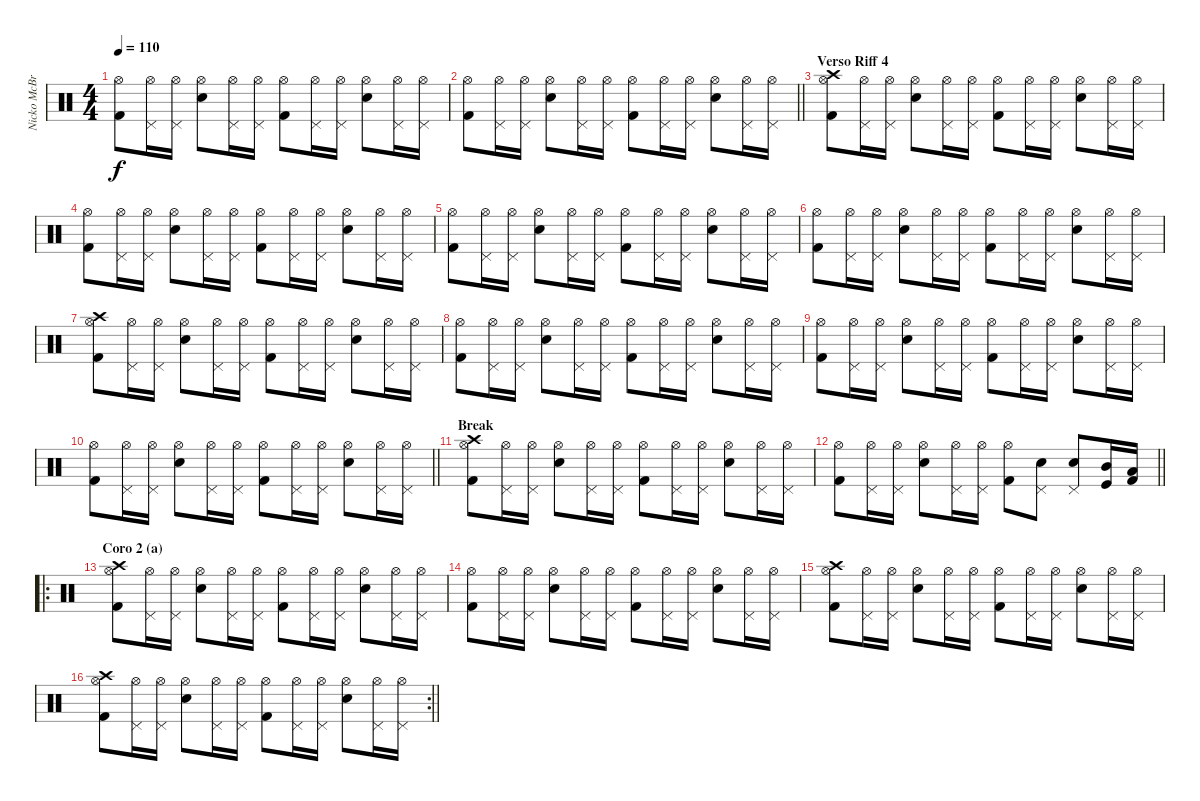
\track ("Nicko McBrain" "Nicko McBr") {instrument percussion}
\staff {score}
\articulation defaults
\ts (4 4)
\tempo 110
\clef neutral
\ks c
("Kick (hit) 2" "Hi-Hat (open)").8{dy f} ("Pedal Hi-Hat (hit)" "Hi-Hat (open)").16 ("Pedal Hi-Hat (hit)" "Hi-Hat (open)").16 ("Snare (hit) 2" "Hi-Hat (open)").8 ("Pedal Hi-Hat (hit)" "Hi-Hat (open)").16 ("Pedal Hi-Hat (hit)" "Hi-Hat (open)").16 ("Kick (hit) 2" "Hi-Hat (open)").8 ("Pedal Hi-Hat (hit)" "Hi-Hat (open)").16 ("Pedal Hi-Hat (hit)" "Hi-Hat (open)").16 ("Snare (hit) 2" "Hi-Hat (open)").8 ("Pedal Hi-Hat (hit)" "Hi-Hat (open)").16 ("Pedal Hi-Hat (hit)" "Hi-Hat (open)").16 |
\barLineRight lightlight
("Kick (hit) 2" "Hi-Hat (open)").8 ("Pedal Hi-Hat (hit)" "Hi-Hat (open)").16 ("Pedal Hi-Hat (hit)" "Hi-Hat (open)").16 ("Snare (hit) 2" "Hi-Hat (open)").8 ("Pedal Hi-Hat (hit)" "Hi-Hat (open)").16 ("Pedal Hi-Hat (hit)" "Hi-Hat (open)").16 ("Kick (hit) 2" "Hi-Hat (open)").8 ("Pedal Hi-Hat (hit)" "Hi-Hat (open)").16 ("Pedal Hi-Hat (hit)" "Hi-Hat (open)").16 ("Snare (hit) 2" "Hi-Hat (open)").8 ("Pedal Hi-Hat (hit)" "Hi-Hat (open)").16 ("Pedal Hi-Hat (hit)" "Hi-Hat (open)").16 |
\section ("" "Verso Riff 4")
("Kick (hit) 2" "Hi-Hat (open)" "Crash high (hit)").8 ("Pedal Hi-Hat (hit)" "Hi-Hat (open)").16 ("Pedal Hi-Hat (hit)" "Hi-Hat (open)").16 ("Snare (hit) 2" "Hi-Hat (open)").8 ("Pedal Hi-Hat (hit)" "Hi-Hat (open)").16 ("Pedal Hi-Hat (hit)" "Hi-Hat (open)").16 ("Kick (hit) 2" "Hi-Hat (open)").8 ("Pedal Hi-Hat (hit)" "Hi-Hat (open)").16 ("Pedal Hi-Hat (hit)" "Hi-Hat (open)").16 ("Snare (hit) 2" "Hi-Hat (open)").8 ("Pedal Hi-Hat (hit)" "Hi-Hat (open)").16 ("Pedal Hi-Hat (hit)" "Hi-Hat (open)").16 |
("Kick (hit) 2" "Hi-Hat (open)").8 ("Pedal Hi-Hat (hit)" "Hi-Hat (open)").16 ("Pedal Hi-Hat (hit)" "Hi-Hat (open)").16 ("Snare (hit) 2" "Hi-Hat (open)").8 ("Pedal Hi-Hat (hit)" "Hi-Hat (open)").16 ("Pedal Hi-Hat (hit)" "Hi-Hat (open)").16 ("Kick (hit) 2" "Hi-Hat (open)").8 ("Pedal Hi-Hat (hit)" "Hi-Hat (open)").16 ("Pedal Hi-Hat (hit)" "Hi-Hat (open)").16 ("Snare (hit) 2" "Hi-Hat (open)").8 ("Pedal Hi-Hat (hit)" "Hi-Hat (open)").16 ("Pedal Hi-Hat (hit)" "Hi-Hat (open)").16 |
("Kick (hit) 2" "Hi-Hat (open)").8 ("Pedal Hi-Hat (hit)" "Hi-Hat (open)").16 ("Pedal Hi-Hat (hit)" "Hi-Hat (open)").16 ("Snare (hit) 2" "Hi-Hat (open)").8 ("Pedal Hi-Hat (hit)" "Hi-Hat (open)").16 ("Pedal Hi-Hat (hit)" "Hi-Hat (open)").16 ("Kick (hit) 2" "Hi-Hat (open)").8 ("Pedal Hi-Hat (hit)" "Hi-Hat (open)").16 ("Pedal Hi-Hat (hit)" "Hi-Hat (open)").16 ("Snare (hit) 2" "Hi-Hat (open)").8 ("Pedal Hi-Hat (hit)" "Hi-Hat (open)").16 ("Pedal Hi-Hat (hit)" "Hi-Hat (open)").16 |
("Kick (hit) 2" "Hi-Hat (open)").8 ("Pedal Hi-Hat (hit)" "Hi-Hat (open)").16 ("Pedal Hi-Hat (hit)" "Hi-Hat (open)").16 ("Snare (hit) 2" "Hi-Hat (open)").8 ("Pedal Hi-Hat (hit)" "Hi-Hat (open)").16 ("Pedal Hi-Hat (hit)" "Hi-Hat (open)").16 ("Kick (hit) 2" "Hi-Hat (open)").8 ("Pedal Hi-Hat (hit)" "Hi-Hat (open)").16 ("Pedal Hi-Hat (hit)" "Hi-Hat (open)").16 ("Snare (hit) 2" "Hi-Hat (open)").8 ("Pedal Hi-Hat (hit)" "Hi-Hat (open)").16 ("Pedal Hi-Hat (hit)" "Hi-Hat (open)").16 |
("Kick (hit) 2" "Hi-Hat (open)" "Crash high (hit)").8 ("Pedal Hi-Hat (hit)" "Hi-Hat (open)").16 ("Pedal Hi-Hat (hit)" "Hi-Hat (open)").16 ("Snare (hit) 2" "Hi-Hat (open)").8 ("Pedal Hi-Hat (hit)" "Hi-Hat (open)").16 ("Pedal Hi-Hat (hit)" "Hi-Hat (open)").16 ("Kick (hit) 2" "Hi-Hat (open)").8 ("Pedal Hi-Hat (hit)" "Hi-Hat (open)").16 ("Pedal Hi-Hat (hit)" "Hi-Hat (open)").16 ("Snare (hit) 2" "Hi-Hat (open)").8 ("Pedal Hi-Hat (hit)" "Hi-Hat (open)").16 ("Pedal Hi-Hat (hit)" "Hi-Hat (open)").16 |
("Kick (hit) 2" "Hi-Hat (open)").8 ("Pedal Hi-Hat (hit)" "Hi-Hat (open)").16 ("Pedal Hi-Hat (hit)" "Hi-Hat (open)").16 ("Snare (hit) 2" "Hi-Hat (open)").8 ("Pedal Hi-Hat (hit)" "Hi-Hat (open)").16 ("Pedal Hi-Hat (hit)" "Hi-Hat (open)").16 ("Kick (hit) 2" "Hi-Hat (open)").8 ("Pedal Hi-Hat (hit)" "Hi-Hat (open)").16 ("Pedal Hi-Hat (hit)" "Hi-Hat (open)").16 ("Snare (hit) 2" "Hi-Hat (open)").8 ("Pedal Hi-Hat (hit)" "Hi-Hat (open)").16 ("Pedal Hi-Hat (hit)" "Hi-Hat (open)").16 |
("Kick (hit) 2" "Hi-Hat (open)").8 ("Pedal Hi-Hat (hit)" "Hi-Hat (open)").16 ("Pedal Hi-Hat (hit)" "Hi-Hat (open)").16 ("Snare (hit) 2" "Hi-Hat (open)").8 ("Pedal Hi-Hat (hit)" "Hi-Hat (open)").16 ("Pedal Hi-Hat (hit)" "Hi-Hat (open)").16 ("Kick (hit) 2" "Hi-Hat (open)").8 ("Pedal Hi-Hat (hit)" "Hi-Hat (open)").16 ("Pedal Hi-Hat (hit)" "Hi-Hat (open)").16 ("Snare (hit) 2" "Hi-Hat (open)").8 ("Pedal Hi-Hat (hit)" "Hi-Hat (open)").16 ("Pedal Hi-Hat (hit)" "Hi-Hat (open)").16 |
\barLineRight lightlight
("Kick (hit) 2" "Hi-Hat (open)").8 ("Pedal Hi-Hat (hit)" "Hi-Hat (open)").16 ("Pedal Hi-Hat (hit)" "Hi-Hat (open)").16 ("Snare (hit) 2" "Hi-Hat (open)").8 ("Pedal Hi-Hat (hit)" "Hi-Hat (open)").16 ("Pedal Hi-Hat (hit)" "Hi-Hat (open)").16 ("Kick (hit) 2" "Hi-Hat (open)").8 ("Pedal Hi-Hat (hit)" "Hi-Hat (open)").16 ("Pedal Hi-Hat (hit)" "Hi-Hat (open)").16 ("Snare (hit) 2" "Hi-Hat (open)").8 ("Pedal Hi-Hat (hit)" "Hi-Hat (open)").16 ("Pedal Hi-Hat (hit)" "Hi-Hat (open)").16 |
\section ("" "Break")
("Kick (hit) 2" "Hi-Hat (open)" "Crash high (hit)").8 ("Pedal Hi-Hat (hit)" "Hi-Hat (open)").16 ("Pedal Hi-Hat (hit)" "Hi-Hat (open)").16 ("Snare (hit) 2" "Hi-Hat (open)").8 ("Pedal Hi-Hat (hit)" "Hi-Hat (open)").16 ("Pedal Hi-Hat (hit)" "Hi-Hat (open)").16 ("Kick (hit) 2" "Hi-Hat (open)").8 ("Pedal Hi-Hat (hit)" "Hi-Hat (open)").16 ("Pedal Hi-Hat (hit)" "Hi-Hat (open)").16 ("Snare (hit) 2" "Hi-Hat (open)").8 ("Pedal Hi-Hat (hit)" "Hi-Hat (open)").16 ("Pedal Hi-Hat (hit)" "Hi-Hat (open)").16 |
\barLineRight lightlight
("Kick (hit) 2" "Hi-Hat (open)").8 ("Pedal Hi-Hat (hit)" "Hi-Hat (open)").16 ("Pedal Hi-Hat (hit)" "Hi-Hat (open)").16 ("Snare (hit) 2" "Hi-Hat (open)").8 ("Pedal Hi-Hat (hit)" "Hi-Hat (open)").16 ("Pedal Hi-Hat (hit)" "Hi-Hat (open)").16 ("Kick (hit) 2" "Hi-Hat (open)").8 ("Snare (hit) 2" "Pedal Hi-Hat (hit)").8 ("Snare (hit) 2" "Pedal Hi-Hat (hit)").8 ("Mid Tom (hit)" "Kick (hit)").16 ("Low Tom (hit)" "Kick (hit) 2").16 |
\ro
\section ("" "Coro 2 (a)")
("Kick (hit) 2" "Hi-Hat (open)" "Crash high (hit)").8 ("Pedal Hi-Hat (hit)" "Hi-Hat (open)").16 ("Pedal Hi-Hat (hit)" "Hi-Hat (open)").16 ("Snare (hit) 2" "Hi-Hat (open)").8 ("Pedal Hi-Hat (hit)" "Hi-Hat (open)").16 ("Pedal Hi-Hat (hit)" "Hi-Hat (open)").16 ("Kick (hit) 2" "Hi-Hat (open)").8 ("Pedal Hi-Hat (hit)" "Hi-Hat (open)").16 ("Pedal Hi-Hat (hit)" "Hi-Hat (open)").16 ("Snare (hit) 2" "Hi-Hat (open)").8 ("Pedal Hi-Hat (hit)" "Hi-Hat (open)").16 ("Pedal Hi-Hat (hit)" "Hi-Hat (open)").16 |
("Kick (hit) 2" "Hi-Hat (open)").8 ("Pedal Hi-Hat (hit)" "Hi-Hat (open)").16 ("Pedal Hi-Hat (hit)" "Hi-Hat (open)").16 ("Snare (hit) 2" "Hi-Hat (open)").8 ("Pedal Hi-Hat (hit)" "Hi-Hat (open)").16 ("Pedal Hi-Hat (hit)" "Hi-Hat (open)").16 ("Kick (hit) 2" "Hi-Hat (open)").8 ("Pedal Hi-Hat (hit)" "Hi-Hat (open)").16 ("Pedal Hi-Hat (hit)" "Hi-Hat (open)").16 ("Snare (hit) 2" "Hi-Hat (open)").8 ("Pedal Hi-Hat (hit)" "Hi-Hat (open)").16 ("Pedal Hi-Hat (hit)" "Hi-Hat (open)").16 |
("Kick (hit) 2" "Hi-Hat (open)" "Crash high (hit)").8 ("Pedal Hi-Hat (hit)" "Hi-Hat (open)").16 ("Pedal Hi-Hat (hit)" "Hi-Hat (open)").16 ("Snare (hit) 2" "Hi-Hat (open)").8 ("Pedal Hi-Hat (hit)" "Hi-Hat (open)").16 ("Pedal Hi-Hat (hit)" "Hi-Hat (open)").16 ("Kick (hit) 2" "Hi-Hat (open)").8 ("Pedal Hi-Hat (hit)" "Hi-Hat (open)").16 ("Pedal Hi-Hat (hit)" "Hi-Hat (open)").16 ("Snare (hit) 2" "Hi-Hat (open)").8 ("Pedal Hi-Hat (hit)" "Hi-Hat (open)").16 ("Pedal Hi-Hat (hit)" "Hi-Hat (open)").16 |
\rc 2
\barLineRight lightlight
("Kick (hit) 2" "Hi-Hat (open)" "Crash high (hit)").8 ("Pedal Hi-Hat (hit)" "Hi-Hat (open)").16 ("Pedal Hi-Hat (hit)" "Hi-Hat (open)").16 ("Snare (hit) 2" "Hi-Hat (open)").8 ("Pedal Hi-Hat (hit)" "Hi-Hat (open)").16 ("Pedal Hi-Hat (hit)" "Hi-Hat (open)").16 ("Kick (hit) 2" "Hi-Hat (open)").8 ("Pedal Hi-Hat (hit)" "Hi-Hat (open)").16 ("Pedal Hi-Hat (hit)" "Hi-Hat (open)").16 ("Snare (hit) 2" "Hi-Hat (open)").8 ("Pedal Hi-Hat (hit)" "Hi-Hat (open)").16 ("Pedal Hi-Hat (hit)" "Hi-Hat (open)").16
